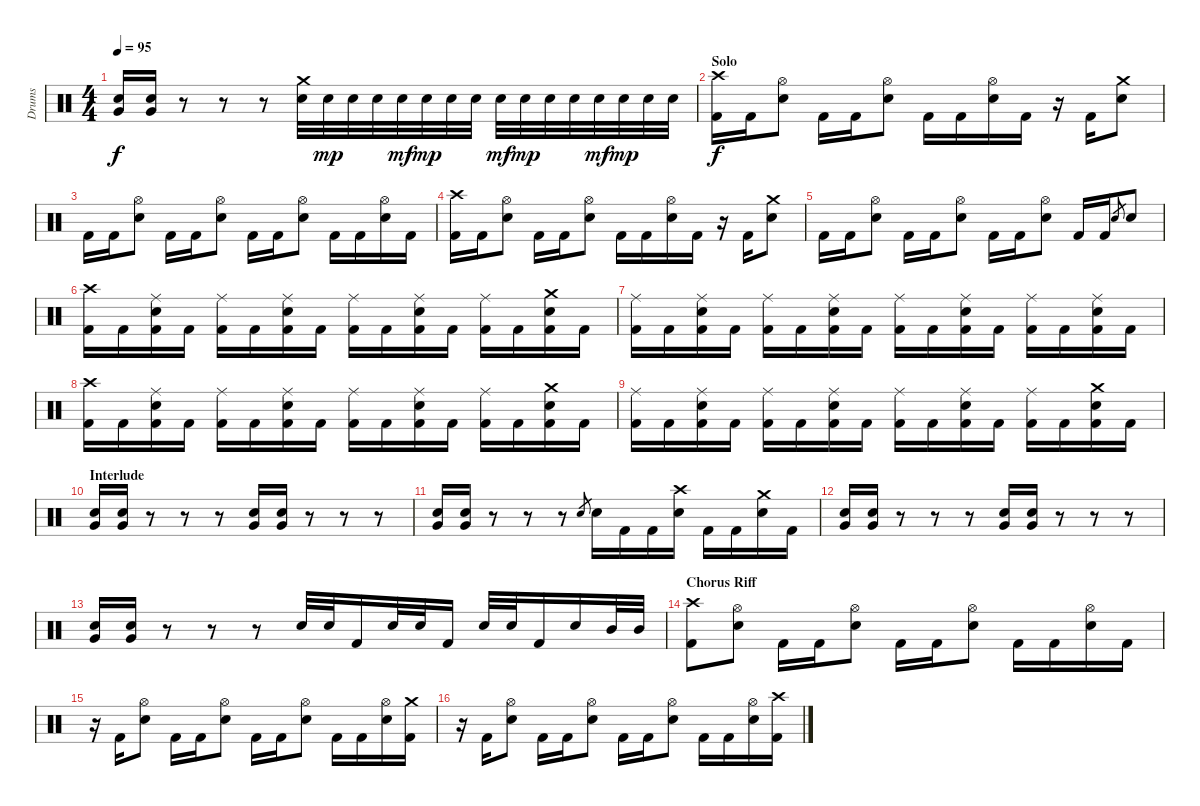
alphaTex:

\track ("Drums" "Drums") {instrument percussion}
\staff {score}
\articulation defaults
\ts (4 4)
\tempo 95
\clef neutral
\ks c
("Snare (hit) 2" "Very Low Tom (hit)").16{dy f} ("Snare (hit) 2" "Very Low Tom (hit)").16 r.8 r.8 r.8 ("Crash medium (hit)" "Snare (hit) 2").32 "Snare (hit) 2".32{dy mp} "Snare (hit) 2".32 "Snare (hit) 2".32 "Snare (hit) 2".32{dy mf} "Snare (hit) 2".32{dy mp} "Snare (hit) 2".32 "Snare (hit) 2".32 "Snare (hit) 2".32{dy mf} "Snare (hit) 2".32{dy mp} "Snare (hit) 2".32 "Snare (hit) 2".32 "Snare (hit) 2".32{dy mf} "Snare (hit) 2".32{dy mp} "Snare (hit) 2".32 "Snare (hit) 2".32 |
\section ("" "Solo")
("Crash high (hit)" "Kick (hit) 2").16{dy f} "Kick (hit) 2".16 ("Hi-Hat (open)" "Snare (hit) 2").8 "Kick (hit) 2".16 "Kick (hit) 2".16 ("Hi-Hat (open)" "Snare (hit) 2").8 "Kick (hit) 2".16 "Kick (hit) 2".16 ("Hi-Hat (open)" "Snare (hit) 2").16 "Kick (hit) 2".16 r.16 "Kick (hit) 2".16 ("Crash medium (hit)" "Snare (hit) 2").8 |
"Kick (hit) 2".16 "Kick (hit) 2".16 ("Hi-Hat (open)" "Snare (hit) 2").8 "Kick (hit) 2".16 "Kick (hit) 2".16 ("Hi-Hat (open)" "Snare (hit) 2").8 "Kick (hit) 2".16 "Kick (hit) 2".16 ("Hi-Hat (open)" "Snare (hit) 2").8 "Kick (hit) 2".16 "Kick (hit) 2".16 ("Hi-Hat (open)" "Snare (hit) 2").16 "Kick (hit) 2".16 |
("Crash high (hit)" "Kick (hit) 2").16 "Kick (hit) 2".16 ("Hi-Hat (open)" "Snare (hit) 2").8 "Kick (hit) 2".16 "Kick (hit) 2".16 ("Hi-Hat (open)" "Snare (hit) 2").8 "Kick (hit) 2".16 "Kick (hit) 2".16 ("Hi-Hat (open)" "Snare (hit) 2").16 "Kick (hit) 2".16 r.16 "Kick (hit) 2".16 ("Crash medium (hit)" "Snare (hit) 2").8 |
"Kick (hit) 2".16 "Kick (hit) 2".16 ("Hi-Hat (open)" "Snare (hit) 2").8 "Kick (hit) 2".16 "Kick (hit) 2".16 ("Hi-Hat (open)" "Snare (hit) 2").8 "Kick (hit) 2".16 "Kick (hit) 2".16 ("Hi-Hat (open)" "Snare (hit) 2").8 "Kick (hit) 2".16 "Kick (hit) 2".16 "Snare (hit) 2".8{gr} "Snare (hit) 2".8 |
("Crash high (hit)" "Kick (hit) 2").16 "Kick (hit) 2".16 ("Ride (middle)" "Snare (hit) 2" "Kick (hit) 2").16 "Kick (hit) 2".16 ("Ride (middle)" "Kick (hit) 2").16 "Kick (hit) 2".16 ("Ride (middle)" "Snare (hit) 2" "Kick (hit) 2").16 "Kick (hit) 2".16 ("Ride (middle)" "Kick (hit) 2").16 "Kick (hit) 2".16 ("Ride (middle)" "Snare (hit) 2" "Kick (hit) 2").16 "Kick (hit) 2".16 ("Ride (middle)" "Kick (hit) 2").16 "Kick (hit) 2".16 ("Crash medium (hit)" "Snare (hit) 2" "Kick (hit) 2").16 "Kick (hit) 2".16 |
("Ride (middle)" "Kick (hit) 2").16 "Kick (hit) 2".16 ("Ride (middle)" "Snare (hit) 2" "Kick (hit) 2").16 "Kick (hit) 2".16 ("Ride (middle)" "Kick (hit) 2").16 "Kick (hit) 2".16 ("Ride (middle)" "Snare (hit) 2" "Kick (hit) 2").16 "Kick (hit) 2".16 ("Ride (middle)" "Kick (hit) 2").16 "Kick (hit) 2".16 ("Ride (middle)" "Snare (hit) 2" "Kick (hit) 2").16 "Kick (hit) 2".16 ("Ride (middle)" "Kick (hit) 2").16 "Kick (hit) 2".16 ("Ride (middle)" "Snare (hit) 2" "Kick (hit) 2").16 "Kick (hit) 2".16 |
("Crash high (hit)" "Kick (hit) 2").16 "Kick (hit) 2".16 ("Ride (middle)" "Snare (hit) 2" "Kick (hit) 2").16 "Kick (hit) 2".16 ("Ride (middle)" "Kick (hit) 2").16 "Kick (hit) 2".16 ("Ride (middle)" "Snare (hit) 2" "Kick (hit) 2").16 "Kick (hit) 2".16 ("Ride (middle)" "Kick (hit) 2").16 "Kick (hit) 2".16 ("Ride (middle)" "Snare (hit) 2" "Kick (hit) 2").16 "Kick (hit) 2".16 ("Ride (middle)" "Kick (hit) 2").16 "Kick (hit) 2".16 ("Crash medium (hit)" "Snare (hit) 2" "Kick (hit) 2").16 "Kick (hit) 2".16 |
("Ride (middle)" "Kick (hit) 2").16 "Kick (hit) 2".16 ("Ride (middle)" "Snare (hit) 2" "Kick (hit) 2").16 "Kick (hit) 2".16 ("Ride (middle)" "Kick (hit) 2").16 "Kick (hit) 2".16 ("Ride (middle)" "Snare (hit) 2" "Kick (hit) 2").16 "Kick (hit) 2".16 ("Ride (middle)" "Kick (hit) 2").16 "Kick (hit) 2".16 ("Ride (middle)" "Snare (hit) 2" "Kick (hit) 2").16 "Kick (hit) 2".16 ("Ride (middle)" "Kick (hit) 2").16 "Kick (hit) 2".16 ("Crash medium (hit)" "Snare (hit) 2" "Kick (hit) 2").16 "Kick (hit) 2".16 |
\section ("" "Interlude")
("Snare (hit) 2" "Very Low Tom (hit)").16 ("Snare (hit) 2" "Very Low Tom (hit)").16 r.8 r.8 r.8 ("Snare (hit) 2" "Very Low Tom (hit)").16 ("Snare (hit) 2" "Very Low Tom (hit)").16 r.8 r.8 r.8 |
("Snare (hit) 2" "Very Low Tom (hit)").16 ("Snare (hit) 2" "Very Low Tom (hit)").16 r.8 r.8 r.8 "Snare (hit) 2".8{gr} "Snare (hit) 2".16 "Kick (hit) 2".16 "Kick (hit) 2".16 ("Crash high (hit)" "Snare (hit) 2").16 "Kick (hit) 2".16 "Kick (hit) 2".16 ("Crash medium (hit)" "Snare (hit) 2").16 "Kick (hit) 2".16 |
("Snare (hit) 2" "Very Low Tom (hit)").16 ("Snare (hit) 2" "Very Low Tom (hit)").16 r.8 r.8 r.8 ("Snare (hit) 2" "Very Low Tom (hit)").16 ("Snare (hit) 2" "Very Low Tom (hit)").16 r.8 r.8 r.8 |
("Snare (hit) 2" "Very Low Tom (hit)").16 ("Snare (hit) 2" "Very Low Tom (hit)").16 r.8 r.8 r.8 "Snare (hit) 2".32 "Snare (hit) 2".32 "Kick (hit) 2".16 "Snare (hit) 2".32 "Snare (hit) 2".32 "Kick (hit) 2".16 "Snare (hit) 2".32 "Snare (hit) 2".32 "Kick (hit) 2".16 "Snare (hit) 2".16 "Mid Tom (hit)".32 "Mid Tom (hit)".32 |
\section ("" "Chorus Riff")
("Crash high (hit)" "Kick (hit) 2").8 ("Hi-Hat (open)" "Snare (hit) 2").8 "Kick (hit) 2".16 "Kick (hit) 2".16 ("Hi-Hat (open)" "Snare (hit) 2").8 "Kick (hit) 2".16 "Kick (hit) 2".16 ("Hi-Hat (open)" "Snare (hit) 2").8 "Kick (hit) 2".16 "Kick (hit) 2".16 ("Hi-Hat (open)" "Snare (hit) 2").16 "Kick (hit) 2".16 |
r.16 "Kick (hit) 2".16 ("Hi-Hat (open)" "Snare (hit) 2").8 "Kick (hit) 2".16 "Kick (hit) 2".16 ("Hi-Hat (open)" "Snare (hit) 2").8 "Kick (hit) 2".16 "Kick (hit) 2".16 ("Hi-Hat (open)" "Snare (hit) 2").8 "Kick (hit) 2".16 "Kick (hit) 2".16 ("Hi-Hat (open)" "Snare (hit) 2").16 ("Crash medium (hit)" "Kick (hit) 2").16 |
r.16 "Kick (hit) 2".16 ("Hi-Hat (open)" "Snare (hit) 2").8 "Kick (hit) 2".16 "Kick (hit) 2".16 ("Hi-Hat (open)" "Snare (hit) 2").8 "Kick (hit) 2".16 "Kick (hit) 2".16 ("Hi-Hat (open)" "Snare (hit) 2").8 "Kick (hit) 2".16 "Kick (hit) 2".16 ("Hi-Hat (open)" "Snare (hit) 2").16 ("Crash high (hit)" "Kick (hit) 2").16
